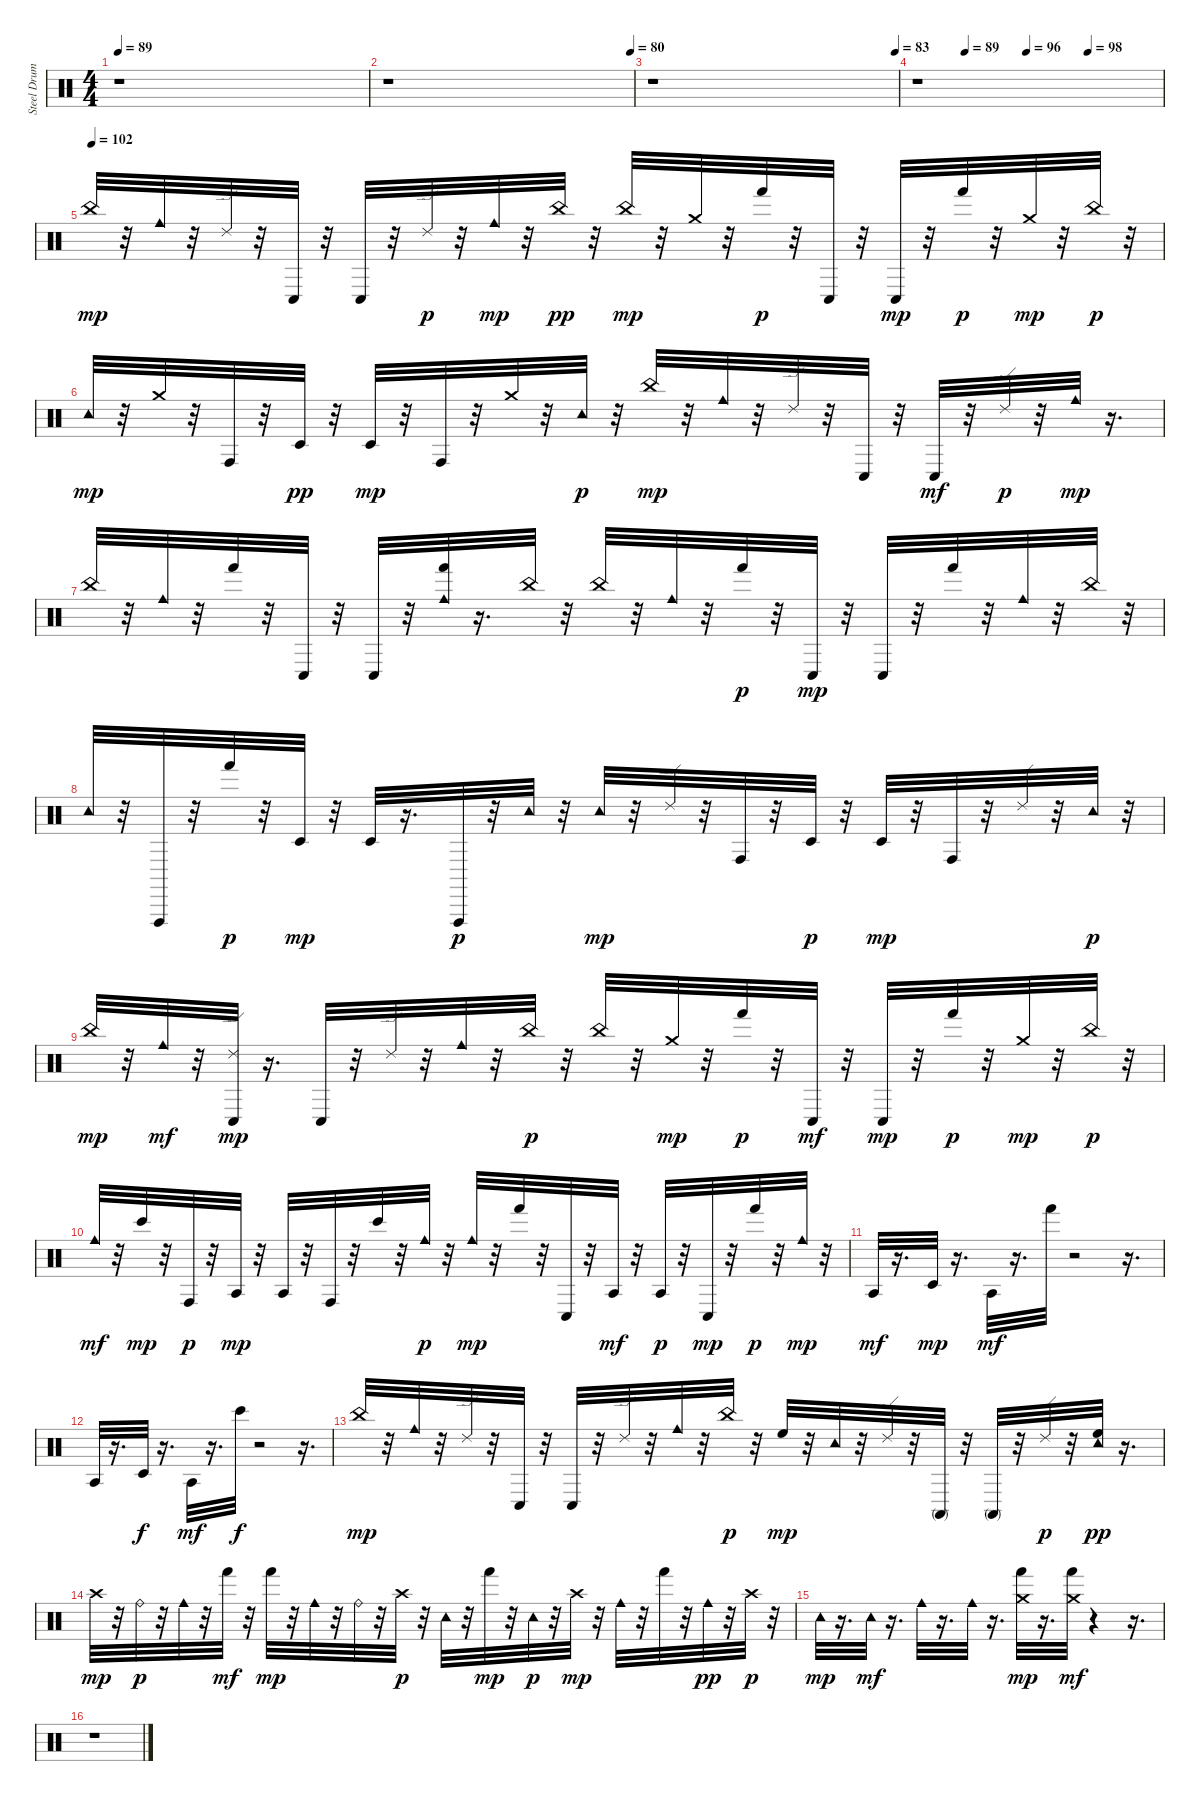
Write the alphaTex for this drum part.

\track ("Steel Drums" "Steel Drum") {instrument percussion}
\staff {score}
\articulation defaults
\ts (4 4)
\tempo 89
\clef neutral
\ks c
r.1{dy mp} |
\tempo (80 0.9895833333333334)
r.1 |
\tempo (83 0.9895833333333334)
r.1 |
\tempo (89 0.19791666666666666)
\tempo (96 0.4479166666666667)
\tempo (98 0.6979166666666666)
r.1 |
\tempo (102)
"China (hit)".32 r.32 "Cowbell medium (hit)".32 r.32 "Ride (edge) 2".32 r.32 "Conga low (hit)".32 r.32 "Conga low (hit)".32 r.32 "Ride (edge) 2".32{dy p} r.32 "Cowbell medium (hit)".32{dy mp} r.32 "China (hit)".32{dy pp} r.32 "China (hit)".32{dy mp} r.32 "Crash medium (hit)".32 r.32 "Hand (hit)".32{dy p} r.32 "Conga low (hit)".32 r.32 "Conga low (hit)".32{dy mp} r.32 "Hand (hit)".32{dy p} r.32 "Crash medium (hit)".32{dy mp} r.32 "China (hit)".32{dy p} r.32 |
"Tambourine (hit)".32{dy mp} r.32 "Crash medium (hit)".32 r.32 "Conga high (hit)".32 r.32 "Timbale low (hit)".32{dy pp} r.32 "Timbale low (hit)".32{dy mp} r.32 "Conga high (hit)".32 r.32 "Crash medium (hit)".32 r.32 "Tambourine (hit)".32{dy p} r.32 "China (hit)".32{dy mp} r.32 "Cowbell medium (hit)".32 r.32 "Ride (edge) 2".32 r.32 "Conga low (hit)".32 r.32 "Conga low (hit)".32{dy mf} r.32 "Ride (edge) 2".32{dy p} r.32 "Cowbell medium (hit)".32{dy mp} r.16{d} |
"China (hit)".32 r.32 "Cowbell medium (hit)".32 r.32 "Hand (hit)".32 r.32 "Conga low (hit)".32 r.32 "Conga low (hit)".32 r.32 ("Cowbell medium (hit)" "Hand (hit)").32 r.16{d} "China (hit)".32 r.32 "China (hit)".32 r.32 "Cowbell medium (hit)".32 r.32 "Hand (hit)".32{dy p} r.32 "Conga low (hit)".32{dy mp} r.32 "Conga low (hit)".32 r.32 "Hand (hit)".32 r.32 "Cowbell medium (hit)".32 r.32 "China (hit)".32 r.32 |
"Tambourine (hit)".32 r.32 "Vibraslap (hit)".32 r.32 "Hand (hit)".32{dy p} r.32 "Timbale low (hit)".32{dy mp} r.32 "Timbale low (hit)".32 r.16{d} "Vibraslap (hit)".32{dy p} r.32 "Tambourine (hit)".32 r.32 "Tambourine (hit)".32{dy mp} r.32 "Ride (edge) 2".32 r.32 "Conga high (hit)".32 r.32 "Timbale low (hit)".32{dy p} r.32 "Timbale low (hit)".32{dy mp} r.32 "Conga high (hit)".32 r.32 "Ride (edge) 2".32 r.32 "Tambourine (hit)".32{dy p} r.32 |
"China (hit)".32{dy mp} r.32 "Cowbell medium (hit)".32{dy mf} r.32 ("Conga low (hit)" "Ride (edge) 2").32{dy mp} r.16{d} "Conga low (hit)".32 r.32 "Ride (edge) 2".32 r.32 "Cowbell medium (hit)".32 r.32 "China (hit)".32{dy p} r.32 "China (hit)".32 r.32 "Crash medium (hit)".32{dy mp} r.32 "Hand (hit)".32{dy p} r.32 "Conga low (hit)".32{dy mf} r.32 "Conga low (hit)".32{dy mp} r.32 "Hand (hit)".32{dy p} r.32 "Crash medium (hit)".32{dy mp} r.32 "China (hit)".32{dy p} r.32 |
"Cowbell medium (hit)".32{dy mf} r.32 "Bongo High (hit)".32{dy mp} r.32 "Conga high (hit)".32{dy p} r.32 "Agogo tow (hit)".32{dy mp} r.32 "Agogo tow (hit)".32 r.32 "Conga high (hit)".32 r.32 "Bongo High (hit)".32 r.32 "Cowbell medium (hit)".32{dy p} r.32 "Cowbell medium (hit)".32{dy mp} r.32 "Hand (hit)".32 r.32 "Conga low (hit)".32 r.32 "Agogo tow (hit)".32{dy mf} r.32 "Agogo tow (hit)".32{dy p} r.32 "Conga low (hit)".32{dy mp} r.32 "Hand (hit)".32{dy p} r.32 "Cowbell medium (hit)".32{dy mp} r.32 |
"Agogo tow (hit)".32{dy mf} r.16{d} "Timbale low (hit)".32{dy mp} r.16{d} "Agogo tow (hit)".32{dy mf} r.16{d} "Hand (hit)".32 r.2 r.16{d} |
"Agogo tow (hit)".32 r.16{d} "Timbale low (hit)".32{dy f} r.16{d} "Agogo tow (hit)".32{dy mf} r.16{d} "Bongo High (hit)".32{dy f} r.2 r.16{d} |
"China (hit)".32{dy mp} r.32 "Cowbell medium (hit)".32 r.32 "Ride (edge) 2".32 r.32 "Conga low (hit)".32 r.32 "Conga low (hit)".32 r.32 "Ride (edge) 2".32 r.32 "Cowbell medium (hit)".32 r.32 "China (hit)".32{dy p} r.32 "High Floor Tom (hit)".32{dy mp} r.32 "Tambourine (hit)".32 r.32 "Ride (edge) 2".32 r.32 "Conga high (mute)".32 r.32 "Conga high (mute)".32 r.32 "Ride (edge) 2".32{dy p} r.32 ("High Floor Tom (hit)" "Tambourine (hit)").32{dy pp} r.16{d} |
"Crash high (hit)".32{dy mp} r.32 "Ride (bell)".32{dy p} r.32 "Cowbell medium (hit)".32 r.32 "Hand (hit)".32{dy mf} r.32 "Hand (hit)".32{dy mp} r.32 "Cowbell medium (hit)".32 r.32 "Ride (bell)".32 r.32 "Crash high (hit)".32{dy p} r.32 "Tambourine (hit)".32 r.32 "Hand (hit)".32{dy mp} r.32 "Tambourine (hit)".32{dy p} r.32 "Crash high (hit)".32{dy mp} r.32 "Cowbell medium (hit)".32 r.32 "Hand (hit)".32 r.32 "Cowbell medium (hit)".32{dy pp} r.32 "Crash high (hit)".32{dy p} r.32 |
"Tambourine (hit)".32{dy mp} r.16{d} "Tambourine (hit)".32{dy mf} r.16{d} "Cowbell medium (hit)".32 r.16{d} "Cowbell medium (hit)".32 r.16{d} ("Crash medium (hit)" "Hand (hit)").32{dy mp} r.16{d} ("Hand (hit)" "Crash medium (hit)").32{dy mf} r.4 r.16{d} |
r.1
